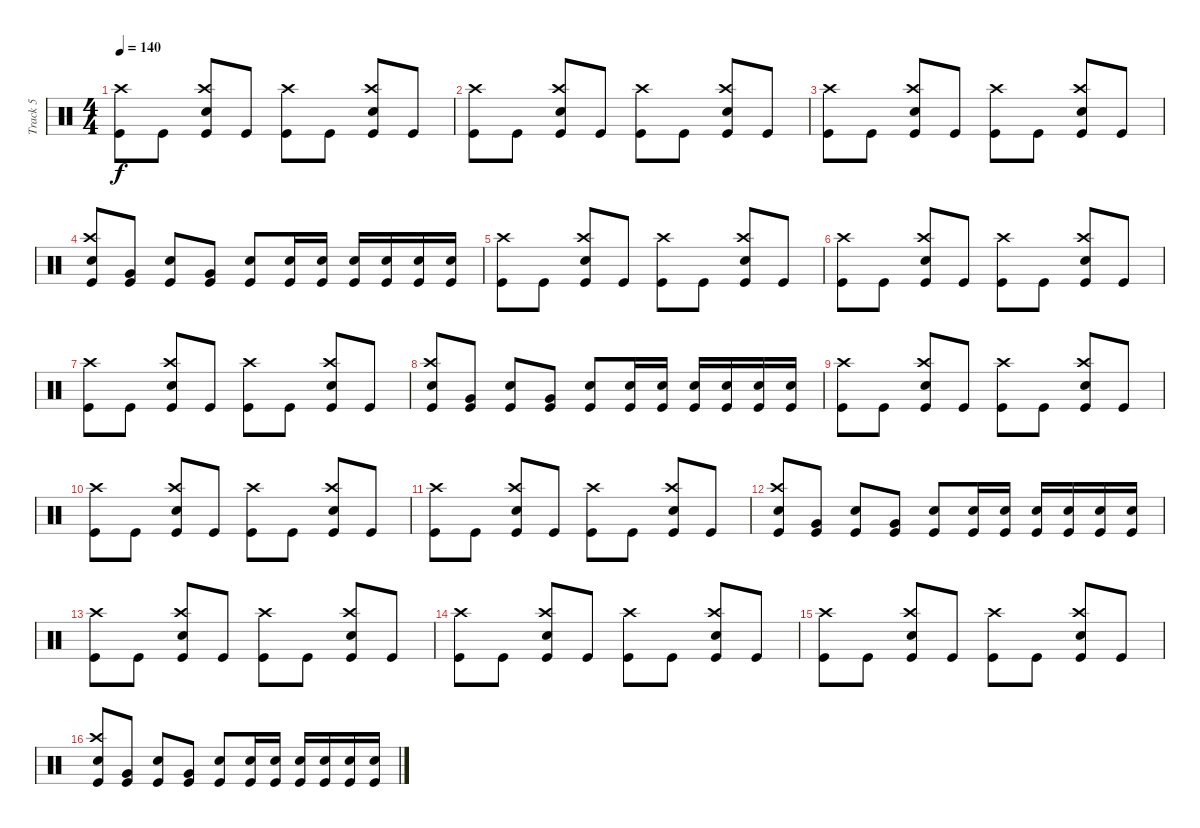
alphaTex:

\track ("Track 5" "Track 5") {instrument percussion}
\staff {score}
\articulation defaults
\ts (4 4)
\tempo 140
\clef neutral
\ks c
("Kick (hit)" "Crash high (hit)").8{dy f} "Kick (hit)".8 ("Electric Snare (hit)" "Kick (hit)" "Crash high (hit)").8 "Kick (hit)".8 ("Kick (hit)" "Crash high (hit)").8 "Kick (hit)".8 ("Electric Snare (hit)" "Kick (hit)" "Crash high (hit)").8 "Kick (hit)".8 |
("Kick (hit)" "Crash high (hit)").8 "Kick (hit)".8 ("Electric Snare (hit)" "Kick (hit)" "Crash high (hit)").8 "Kick (hit)".8 ("Kick (hit)" "Crash high (hit)").8 "Kick (hit)".8 ("Electric Snare (hit)" "Kick (hit)" "Crash high (hit)").8 "Kick (hit)".8 |
("Kick (hit)" "Crash high (hit)").8 "Kick (hit)".8 ("Electric Snare (hit)" "Kick (hit)" "Crash high (hit)").8 "Kick (hit)".8 ("Kick (hit)" "Crash high (hit)").8 "Kick (hit)".8 ("Electric Snare (hit)" "Kick (hit)" "Crash high (hit)").8 "Kick (hit)".8 |
("Electric Snare (hit)" "Crash high (hit)" "Kick (hit)").8 ("Very Low Tom (hit)" "Kick (hit)").8 ("Electric Snare (hit)" "Kick (hit)").8 ("Very Low Tom (hit)" "Kick (hit)").8 ("Electric Snare (hit)" "Kick (hit)").8 ("Electric Snare (hit)" "Kick (hit)").16 ("Electric Snare (hit)" "Kick (hit)").16 ("Electric Snare (hit)" "Kick (hit)").16 ("Electric Snare (hit)" "Kick (hit)").16 ("Electric Snare (hit)" "Kick (hit)").16 ("Electric Snare (hit)" "Kick (hit)").16 |
("Kick (hit)" "Crash high (hit)").8 "Kick (hit)".8 ("Electric Snare (hit)" "Kick (hit)" "Crash high (hit)").8 "Kick (hit)".8 ("Kick (hit)" "Crash high (hit)").8 "Kick (hit)".8 ("Electric Snare (hit)" "Kick (hit)" "Crash high (hit)").8 "Kick (hit)".8 |
("Kick (hit)" "Crash high (hit)").8 "Kick (hit)".8 ("Electric Snare (hit)" "Kick (hit)" "Crash high (hit)").8 "Kick (hit)".8 ("Kick (hit)" "Crash high (hit)").8 "Kick (hit)".8 ("Electric Snare (hit)" "Kick (hit)" "Crash high (hit)").8 "Kick (hit)".8 |
("Kick (hit)" "Crash high (hit)").8 "Kick (hit)".8 ("Electric Snare (hit)" "Kick (hit)" "Crash high (hit)").8 "Kick (hit)".8 ("Kick (hit)" "Crash high (hit)").8 "Kick (hit)".8 ("Electric Snare (hit)" "Kick (hit)" "Crash high (hit)").8 "Kick (hit)".8 |
("Electric Snare (hit)" "Crash high (hit)" "Kick (hit)").8 ("Very Low Tom (hit)" "Kick (hit)").8 ("Electric Snare (hit)" "Kick (hit)").8 ("Very Low Tom (hit)" "Kick (hit)").8 ("Electric Snare (hit)" "Kick (hit)").8 ("Electric Snare (hit)" "Kick (hit)").16 ("Electric Snare (hit)" "Kick (hit)").16 ("Electric Snare (hit)" "Kick (hit)").16 ("Electric Snare (hit)" "Kick (hit)").16 ("Electric Snare (hit)" "Kick (hit)").16 ("Electric Snare (hit)" "Kick (hit)").16 |
("Kick (hit)" "Crash high (hit)").8 "Kick (hit)".8 ("Electric Snare (hit)" "Kick (hit)" "Crash high (hit)").8 "Kick (hit)".8 ("Kick (hit)" "Crash high (hit)").8 "Kick (hit)".8 ("Electric Snare (hit)" "Kick (hit)" "Crash high (hit)").8 "Kick (hit)".8 |
("Kick (hit)" "Crash high (hit)").8 "Kick (hit)".8 ("Electric Snare (hit)" "Kick (hit)" "Crash high (hit)").8 "Kick (hit)".8 ("Kick (hit)" "Crash high (hit)").8 "Kick (hit)".8 ("Electric Snare (hit)" "Kick (hit)" "Crash high (hit)").8 "Kick (hit)".8 |
("Kick (hit)" "Crash high (hit)").8 "Kick (hit)".8 ("Electric Snare (hit)" "Kick (hit)" "Crash high (hit)").8 "Kick (hit)".8 ("Kick (hit)" "Crash high (hit)").8 "Kick (hit)".8 ("Electric Snare (hit)" "Kick (hit)" "Crash high (hit)").8 "Kick (hit)".8 |
("Electric Snare (hit)" "Crash high (hit)" "Kick (hit)").8 ("Very Low Tom (hit)" "Kick (hit)").8 ("Electric Snare (hit)" "Kick (hit)").8 ("Very Low Tom (hit)" "Kick (hit)").8 ("Electric Snare (hit)" "Kick (hit)").8 ("Electric Snare (hit)" "Kick (hit)").16 ("Electric Snare (hit)" "Kick (hit)").16 ("Electric Snare (hit)" "Kick (hit)").16 ("Electric Snare (hit)" "Kick (hit)").16 ("Electric Snare (hit)" "Kick (hit)").16 ("Electric Snare (hit)" "Kick (hit)").16 |
("Kick (hit)" "Crash high (hit)").8 "Kick (hit)".8 ("Electric Snare (hit)" "Kick (hit)" "Crash high (hit)").8 "Kick (hit)".8 ("Kick (hit)" "Crash high (hit)").8 "Kick (hit)".8 ("Electric Snare (hit)" "Kick (hit)" "Crash high (hit)").8 "Kick (hit)".8 |
("Kick (hit)" "Crash high (hit)").8 "Kick (hit)".8 ("Electric Snare (hit)" "Kick (hit)" "Crash high (hit)").8 "Kick (hit)".8 ("Kick (hit)" "Crash high (hit)").8 "Kick (hit)".8 ("Electric Snare (hit)" "Kick (hit)" "Crash high (hit)").8 "Kick (hit)".8 |
("Kick (hit)" "Crash high (hit)").8 "Kick (hit)".8 ("Electric Snare (hit)" "Kick (hit)" "Crash high (hit)").8 "Kick (hit)".8 ("Kick (hit)" "Crash high (hit)").8 "Kick (hit)".8 ("Electric Snare (hit)" "Kick (hit)" "Crash high (hit)").8 "Kick (hit)".8 |
("Electric Snare (hit)" "Crash high (hit)" "Kick (hit)").8 ("Very Low Tom (hit)" "Kick (hit)").8 ("Electric Snare (hit)" "Kick (hit)").8 ("Very Low Tom (hit)" "Kick (hit)").8 ("Electric Snare (hit)" "Kick (hit)").8 ("Electric Snare (hit)" "Kick (hit)").16 ("Electric Snare (hit)" "Kick (hit)").16 ("Electric Snare (hit)" "Kick (hit)").16 ("Electric Snare (hit)" "Kick (hit)").16 ("Electric Snare (hit)" "Kick (hit)").16 ("Electric Snare (hit)" "Kick (hit)").16
